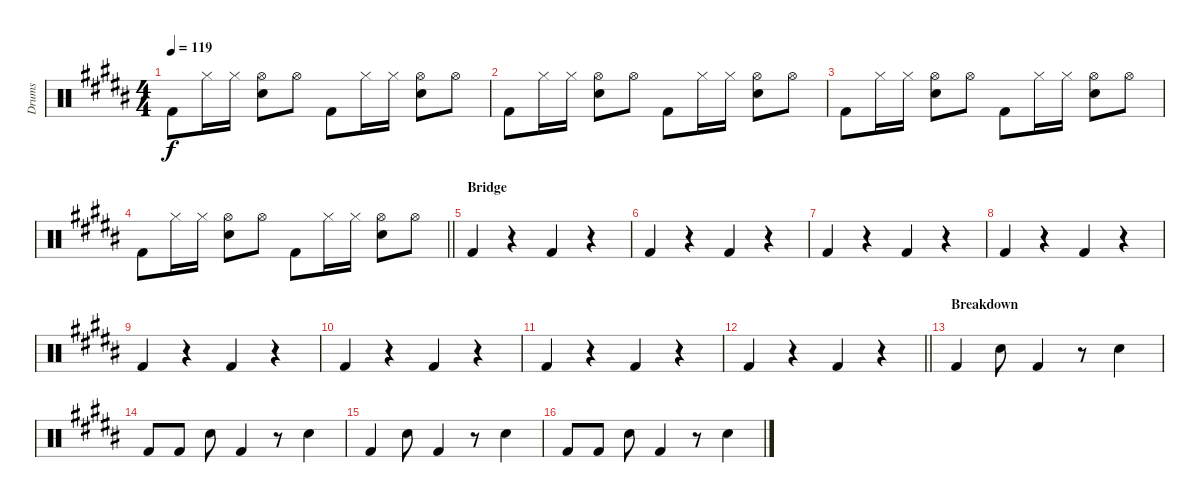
\track ("Drums" "Drums") {instrument percussion}
\staff {score}
\articulation defaults
\ts (4 4)
\tempo 119
\clef neutral
\ks b "Kick (hit) 2".8{dy f} "Hi-Hat (closed)".16 "Hi-Hat (closed)".16
("Snare (hit) 2" "Hi-Hat (open)").8 "Hi-Hat (open)".8 "Kick (hit) 2".8 "Hi-Hat (closed)".16 "Hi-Hat (closed)".16 ("Snare (hit) 2" "Hi-Hat (open)").8 "Hi-Hat (open)".8 |
"Kick (hit) 2".8 "Hi-Hat (closed)".16 "Hi-Hat (closed)".16 ("Snare (hit) 2" "Hi-Hat (open)").8 "Hi-Hat (open)".8 "Kick (hit) 2".8 "Hi-Hat (closed)".16 "Hi-Hat (closed)".16 ("Snare (hit) 2" "Hi-Hat (open)").8 "Hi-Hat (open)".8 |
"Kick (hit) 2".8 "Hi-Hat (closed)".16 "Hi-Hat (closed)".16 ("Snare (hit) 2" "Hi-Hat (open)").8 "Hi-Hat (open)".8 "Kick (hit) 2".8 "Hi-Hat (closed)".16 "Hi-Hat (closed)".16 ("Snare (hit) 2" "Hi-Hat (open)").8 "Hi-Hat (open)".8 |
\barLineRight lightlight "Kick (hit) 2".8 "Hi-Hat (closed)".16 "Hi-Hat (closed)".16
("Snare (hit) 2" "Hi-Hat (open)").8 "Hi-Hat (open)".8 "Kick (hit) 2".8 "Hi-Hat (closed)".16 "Hi-Hat (closed)".16 ("Snare (hit) 2" "Hi-Hat (open)").8 "Hi-Hat (open)".8 |
\section ("" "Bridge")
"Kick (hit) 2".4 r.4 "Kick (hit) 2".4 r.4 |
"Kick (hit) 2".4 r.4 "Kick (hit) 2".4 r.4 |
"Kick (hit) 2".4 r.4 "Kick (hit) 2".4 r.4 |
"Kick (hit) 2".4 r.4 "Kick (hit) 2".4 r.4 |
"Kick (hit) 2".4 r.4 "Kick (hit) 2".4 r.4 |
"Kick (hit) 2".4 r.4 "Kick (hit) 2".4 r.4 |
"Kick (hit) 2".4 r.4 "Kick (hit) 2".4 r.4 |
\barLineRight lightlight "Kick (hit) 2".4
r.4 "Kick (hit) 2".4 r.4 |
\section ("" "Breakdown")
"Kick (hit) 2".4 "Hand Clap (hit)".8 "Kick (hit) 2".4 r.8 "Hand Clap (hit)".4 |
"Kick (hit) 2".8 "Kick (hit) 2".8 "Hand Clap (hit)".8 "Kick (hit) 2".4 r.8 "Hand Clap (hit)".4 |
"Kick (hit) 2".4 "Hand Clap (hit)".8 "Kick (hit) 2".4 r.8 "Hand Clap (hit)".4 |
"Kick (hit) 2".8 "Kick (hit) 2".8 "Hand Clap (hit)".8 "Kick (hit) 2".4 r.8 "Hand Clap (hit)".4
